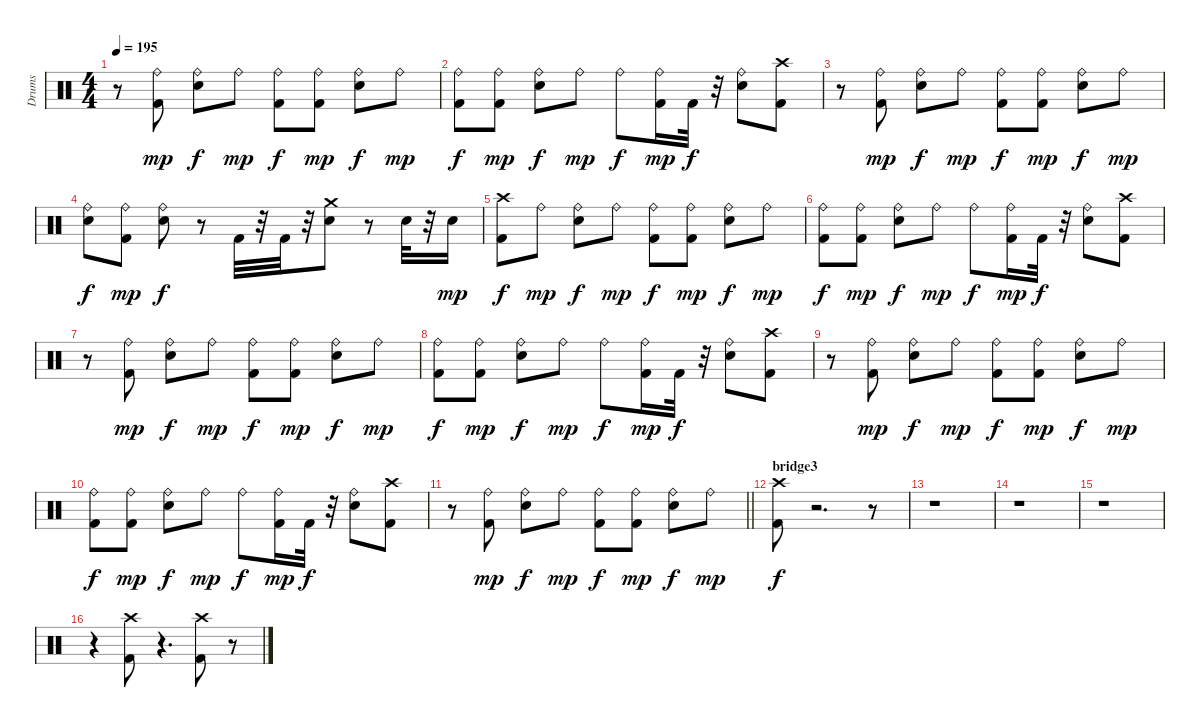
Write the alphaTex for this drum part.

\track ("Drums" "Drums") {instrument percussion}
\staff {score}
\articulation defaults
\ts (4 4)
\tempo 195
\clef neutral
\ks c
r.8{dy f} ("Kick (hit) 2" "Ride (bell)").8{dy mp} ("Electric Snare (hit)" "Ride (bell)").8{dy f} "Ride (bell)".8{dy mp} ("Kick (hit) 2" "Ride (bell)").8{dy f} ("Kick (hit) 2" "Ride (bell)").8{dy mp} ("Electric Snare (hit)" "Ride (bell)").8{dy f} "Ride (bell)".8{dy mp} |
("Kick (hit) 2" "Ride (bell)").8{dy f} ("Kick (hit) 2" "Ride (bell)").8{dy mp} ("Electric Snare (hit)" "Ride (bell)").8{dy f} "Ride (bell)".8{dy mp} "Ride (bell)".8{dy f} ("Kick (hit) 2" "Ride (bell)").16{dy mp} "Kick (hit) 2".32{dy f} r.32 ("Electric Snare (hit)" "Ride (bell)").8 ("Kick (hit) 2" "Crash high (hit)").8 |
r.8 ("Kick (hit) 2" "Ride (bell)").8{dy mp} ("Electric Snare (hit)" "Ride (bell)").8{dy f} "Ride (bell)".8{dy mp} ("Kick (hit) 2" "Ride (bell)").8{dy f} ("Kick (hit) 2" "Ride (bell)").8{dy mp} ("Electric Snare (hit)" "Ride (bell)").8{dy f} "Ride (bell)".8{dy mp} |
("Electric Snare (hit)" "Ride (bell)").8{dy f} ("Kick (hit) 2" "Ride (bell)").8{dy mp} ("Electric Snare (hit)" "Ride (bell)").8{dy f} r.8 "Kick (hit) 2".32 r.32 "Kick (hit) 2".32 r.32 ("Electric Snare (hit)" "Crash medium (hit)").8 r.8 "Electric Snare (hit)".32 r.32 "Electric Snare (hit)".16{dy mp} |
("Kick (hit) 2" "Crash high (hit)").8{dy f} "Ride (bell)".8{dy mp} ("Electric Snare (hit)" "Ride (bell)").8{dy f} "Ride (bell)".8{dy mp} ("Kick (hit) 2" "Ride (bell)").8{dy f} ("Kick (hit) 2" "Ride (bell)").8{dy mp} ("Electric Snare (hit)" "Ride (bell)").8{dy f} "Ride (bell)".8{dy mp} |
("Kick (hit) 2" "Ride (bell)").8{dy f} ("Kick (hit) 2" "Ride (bell)").8{dy mp} ("Electric Snare (hit)" "Ride (bell)").8{dy f} "Ride (bell)".8{dy mp} "Ride (bell)".8{dy f} ("Kick (hit) 2" "Ride (bell)").16{dy mp} "Kick (hit) 2".32{dy f} r.32 ("Electric Snare (hit)" "Ride (bell)").8 ("Kick (hit) 2" "Crash high (hit)").8 |
r.8 ("Kick (hit) 2" "Ride (bell)").8{dy mp} ("Electric Snare (hit)" "Ride (bell)").8{dy f} "Ride (bell)".8{dy mp} ("Kick (hit) 2" "Ride (bell)").8{dy f} ("Kick (hit) 2" "Ride (bell)").8{dy mp} ("Electric Snare (hit)" "Ride (bell)").8{dy f} "Ride (bell)".8{dy mp} |
("Kick (hit) 2" "Ride (bell)").8{dy f} ("Kick (hit) 2" "Ride (bell)").8{dy mp} ("Electric Snare (hit)" "Ride (bell)").8{dy f} "Ride (bell)".8{dy mp} "Ride (bell)".8{dy f} ("Kick (hit) 2" "Ride (bell)").16{dy mp} "Kick (hit) 2".32{dy f} r.32 ("Electric Snare (hit)" "Ride (bell)").8 ("Kick (hit) 2" "Crash high (hit)").8 |
r.8 ("Kick (hit) 2" "Ride (bell)").8{dy mp} ("Electric Snare (hit)" "Ride (bell)").8{dy f} "Ride (bell)".8{dy mp} ("Kick (hit) 2" "Ride (bell)").8{dy f} ("Kick (hit) 2" "Ride (bell)").8{dy mp} ("Electric Snare (hit)" "Ride (bell)").8{dy f} "Ride (bell)".8{dy mp} |
("Kick (hit) 2" "Ride (bell)").8{dy f} ("Kick (hit) 2" "Ride (bell)").8{dy mp} ("Electric Snare (hit)" "Ride (bell)").8{dy f} "Ride (bell)".8{dy mp} "Ride (bell)".8{dy f} ("Kick (hit) 2" "Ride (bell)").16{dy mp} "Kick (hit) 2".32{dy f} r.32 ("Electric Snare (hit)" "Ride (bell)").8 ("Kick (hit) 2" "Crash high (hit)").8 |
\barLineRight lightlight
r.8 ("Kick (hit) 2" "Ride (bell)").8{dy mp} ("Electric Snare (hit)" "Ride (bell)").8{dy f} "Ride (bell)".8{dy mp} ("Kick (hit) 2" "Ride (bell)").8{dy f} ("Kick (hit) 2" "Ride (bell)").8{dy mp} ("Electric Snare (hit)" "Ride (bell)").8{dy f} "Ride (bell)".8{dy mp} |
\section ("" "bridge3")
("Kick (hit) 2" "Crash high (hit)").8{dy f} r.2{d} r.8 |
r.1 |
r.1 |
r.1 |
r.4 ("Kick (hit) 2" "Crash high (hit)").8 r.4{d} ("Kick (hit) 2" "Crash high (hit)").8 r.8
